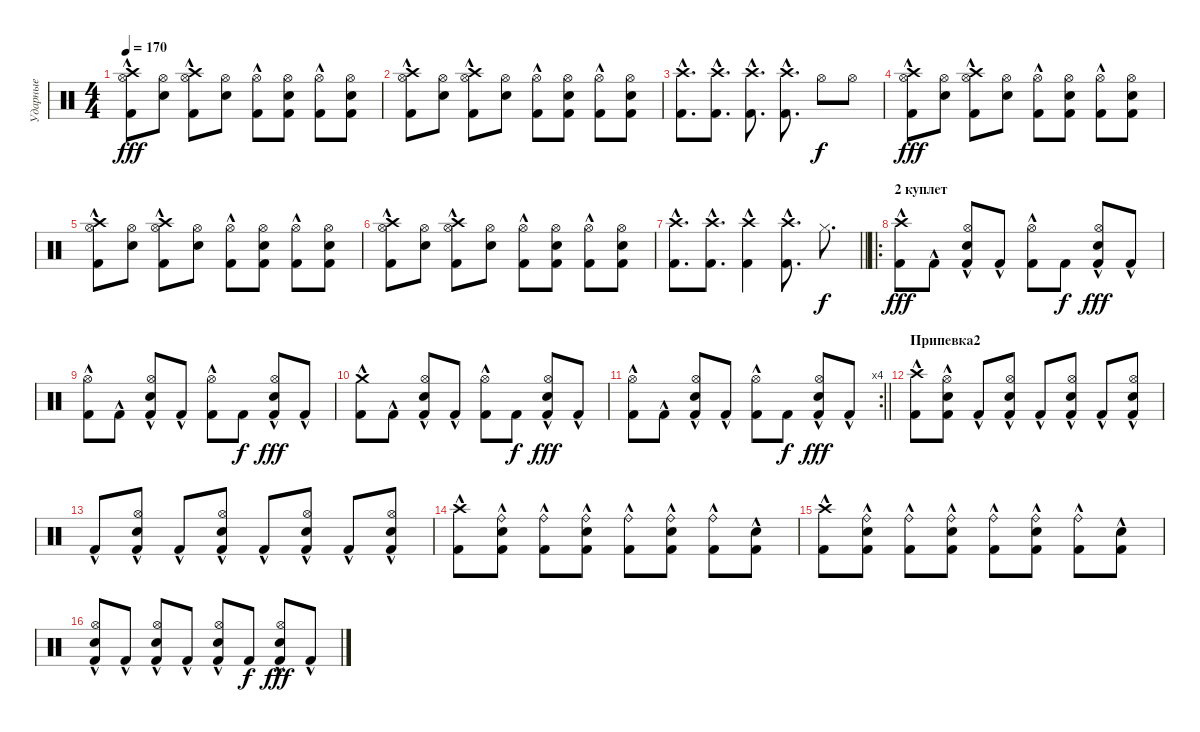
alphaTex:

\track ("Ударные" "Ударные") {instrument percussion}
\staff {score}
\articulation defaults
\ts (4 4)
\tempo 170
\clef neutral
\ks c
("Kick (hit) 2"{hac} "Hi-Hat (open)" "Crash high (hit)").8{dy fff} ("Snare (hit) 2" "Hi-Hat (open)").8 ("Kick (hit) 2"{hac} "Hi-Hat (open)" "Crash high (hit)").8 ("Snare (hit) 2" "Hi-Hat (open)").8 ("Kick (hit) 2"{hac} "Hi-Hat (open)").8 ("Snare (hit) 2" "Hi-Hat (open)" "Kick (hit) 2").8 ("Kick (hit) 2"{hac} "Hi-Hat (open)").8 ("Snare (hit) 2" "Hi-Hat (open)" "Kick (hit) 2").8 |
("Kick (hit) 2"{hac} "Hi-Hat (open)" "Crash high (hit)").8 ("Snare (hit) 2" "Hi-Hat (open)").8 ("Kick (hit) 2"{hac} "Hi-Hat (open)" "Crash high (hit)").8 ("Snare (hit) 2" "Hi-Hat (open)").8 ("Kick (hit) 2"{hac} "Hi-Hat (open)").8 ("Snare (hit) 2" "Hi-Hat (open)" "Kick (hit) 2").8 ("Kick (hit) 2"{hac} "Hi-Hat (open)").8 ("Snare (hit) 2" "Hi-Hat (open)" "Kick (hit) 2").8 |
("Kick (hit) 2"{hac} "Crash high (hit)").8{d} ("Kick (hit) 2"{hac} "Crash high (hit)").8{d} ("Kick (hit) 2"{hac} "Crash high (hit)").8{d} ("Kick (hit) 2"{hac} "Crash high (hit)").8{d} "Hi-Hat (open)".8{dy f} "Hi-Hat (open)".8 |
("Kick (hit) 2"{hac} "Hi-Hat (open)" "Crash high (hit)").8{dy fff} ("Snare (hit) 2" "Hi-Hat (open)").8 ("Kick (hit) 2"{hac} "Hi-Hat (open)" "Crash high (hit)").8 ("Snare (hit) 2" "Hi-Hat (open)").8 ("Kick (hit) 2"{hac} "Hi-Hat (open)").8 ("Snare (hit) 2" "Hi-Hat (open)" "Kick (hit) 2").8 ("Kick (hit) 2"{hac} "Hi-Hat (open)").8 ("Snare (hit) 2" "Hi-Hat (open)" "Kick (hit) 2").8 |
("Kick (hit) 2"{hac} "Hi-Hat (open)" "Crash high (hit)").8 ("Snare (hit) 2" "Hi-Hat (open)").8 ("Kick (hit) 2"{hac} "Hi-Hat (open)" "Crash high (hit)").8 ("Snare (hit) 2" "Hi-Hat (open)").8 ("Kick (hit) 2"{hac} "Hi-Hat (open)").8 ("Snare (hit) 2" "Hi-Hat (open)" "Kick (hit) 2").8 ("Kick (hit) 2"{hac} "Hi-Hat (open)").8 ("Snare (hit) 2" "Hi-Hat (open)" "Kick (hit) 2").8 |
("Kick (hit) 2"{hac} "Hi-Hat (open)" "Crash high (hit)").8 ("Snare (hit) 2" "Hi-Hat (open)").8 ("Kick (hit) 2"{hac} "Hi-Hat (open)" "Crash high (hit)").8 ("Snare (hit) 2" "Hi-Hat (open)").8 ("Kick (hit) 2"{hac} "Hi-Hat (open)").8 ("Snare (hit) 2" "Hi-Hat (open)" "Kick (hit) 2").8 ("Kick (hit) 2"{hac} "Hi-Hat (open)").8 ("Snare (hit) 2" "Hi-Hat (open)" "Kick (hit) 2").8 |
\barLineRight lightlight
("Kick (hit) 2"{hac} "Crash high (hit)").8{d} ("Kick (hit) 2"{hac} "Crash high (hit)").8{d} ("Kick (hit) 2"{hac} "Crash high (hit)").4 ("Kick (hit) 2"{hac} "Crash high (hit)").8{d} "Hi-Hat (closed)".8{d dy f} |
\ro
\section ("" "2 куплет")
("Kick (hit) 2"{hac} "Crash high (hit)").8{dy fff balance 0} "Kick (hit) 2"{hac}.8{balance 8} ("Kick (hit) 2"{hac} "Hi-Hat (open)" "Snare (hit) 2").8 "Kick (hit) 2"{hac}.8 ("Kick (hit) 2"{hac} "Hi-Hat (open)").8 "Kick (hit) 2".8{dy f} ("Kick (hit) 2"{hac} "Hi-Hat (open)" "Snare (hit) 2").8{dy fff} "Kick (hit) 2"{hac}.8 |
("Kick (hit) 2"{hac} "Hi-Hat (open)").8 "Kick (hit) 2"{hac}.8 ("Kick (hit) 2"{hac} "Hi-Hat (open)" "Snare (hit) 2").8 "Kick (hit) 2"{hac}.8 ("Kick (hit) 2"{hac} "Hi-Hat (open)").8 "Kick (hit) 2".8{dy f} ("Kick (hit) 2"{hac} "Hi-Hat (open)" "Snare (hit) 2").8{dy fff} "Kick (hit) 2"{hac}.8 |
("Kick (hit) 2"{hac} "Crash medium (hit)").8{balance 16} "Kick (hit) 2"{hac}.8{balance 8} ("Kick (hit) 2"{hac} "Hi-Hat (open)" "Snare (hit) 2").8 "Kick (hit) 2"{hac}.8 ("Kick (hit) 2"{hac} "Hi-Hat (open)").8 "Kick (hit) 2".8{dy f} ("Kick (hit) 2"{hac} "Hi-Hat (open)" "Snare (hit) 2").8{dy fff} "Kick (hit) 2"{hac}.8 |
\rc 4
\barLineRight lightlight
("Kick (hit) 2"{hac} "Hi-Hat (open)").8 "Kick (hit) 2"{hac}.8 ("Kick (hit) 2"{hac} "Hi-Hat (open)" "Snare (hit) 2").8 "Kick (hit) 2"{hac}.8 ("Kick (hit) 2"{hac} "Hi-Hat (open)").8 "Kick (hit) 2".8{dy f} ("Kick (hit) 2"{hac} "Hi-Hat (open)" "Snare (hit) 2").8{dy fff} "Kick (hit) 2"{hac}.8 |
\section ("" "Припевка2")
("Kick (hit) 2"{hac} "Crash high (hit)").8 ("Kick (hit) 2"{hac} "Hi-Hat (open)" "Snare (hit) 2").8 "Kick (hit) 2"{hac}.8 ("Kick (hit) 2"{hac} "Hi-Hat (open)" "Snare (hit) 2").8 "Kick (hit) 2"{hac}.8 ("Kick (hit) 2"{hac} "Hi-Hat (open)" "Snare (hit) 2").8 "Kick (hit) 2"{hac}.8 ("Kick (hit) 2"{hac} "Hi-Hat (open)" "Snare (hit) 2").8 |
"Kick (hit) 2"{hac}.8 ("Kick (hit) 2"{hac} "Hi-Hat (open)" "Snare (hit) 2").8 "Kick (hit) 2"{hac}.8 ("Kick (hit) 2"{hac} "Hi-Hat (open)" "Snare (hit) 2").8 "Kick (hit) 2"{hac}.8 ("Kick (hit) 2"{hac} "Hi-Hat (open)" "Snare (hit) 2").8 "Kick (hit) 2"{hac}.8 ("Kick (hit) 2"{hac} "Hi-Hat (open)" "Snare (hit) 2").8 |
("Kick (hit) 2"{hac} "Crash high (hit)").8 ("Kick (hit) 2"{hac} "Ride (bell)" "Snare (hit) 2").8 ("Kick (hit) 2"{hac} "Ride (bell)").8 ("Kick (hit) 2"{hac} "Ride (bell)" "Snare (hit) 2").8 ("Kick (hit) 2"{hac} "Ride (bell)").8 ("Kick (hit) 2"{hac} "Ride (bell)" "Snare (hit) 2").8 ("Kick (hit) 2"{hac} "Ride (bell)").8 ("Kick (hit) 2"{hac} "Snare (hit) 2").8 |
("Kick (hit) 2"{hac} "Crash high (hit)").8 ("Kick (hit) 2"{hac} "Ride (bell)" "Snare (hit) 2").8 ("Kick (hit) 2"{hac} "Ride (bell)").8 ("Kick (hit) 2"{hac} "Ride (bell)" "Snare (hit) 2").8 ("Kick (hit) 2"{hac} "Ride (bell)").8 ("Kick (hit) 2"{hac} "Ride (bell)" "Snare (hit) 2").8 ("Kick (hit) 2"{hac} "Ride (bell)").8 ("Kick (hit) 2"{hac} "Snare (hit) 2").8 |
("Kick (hit) 2"{hac} "Hi-Hat (open)" "Snare (hit) 2").8 "Kick (hit) 2"{hac}.8 ("Kick (hit) 2"{hac} "Hi-Hat (open)" "Snare (hit) 2").8 "Kick (hit) 2"{hac}.8 ("Kick (hit) 2"{hac} "Hi-Hat (open)" "Snare (hit) 2").8 "Kick (hit) 2".8{dy f} ("Kick (hit) 2"{hac} "Hi-Hat (open)" "Snare (hit) 2").8{dy fff} "Kick (hit) 2"{hac}.8
